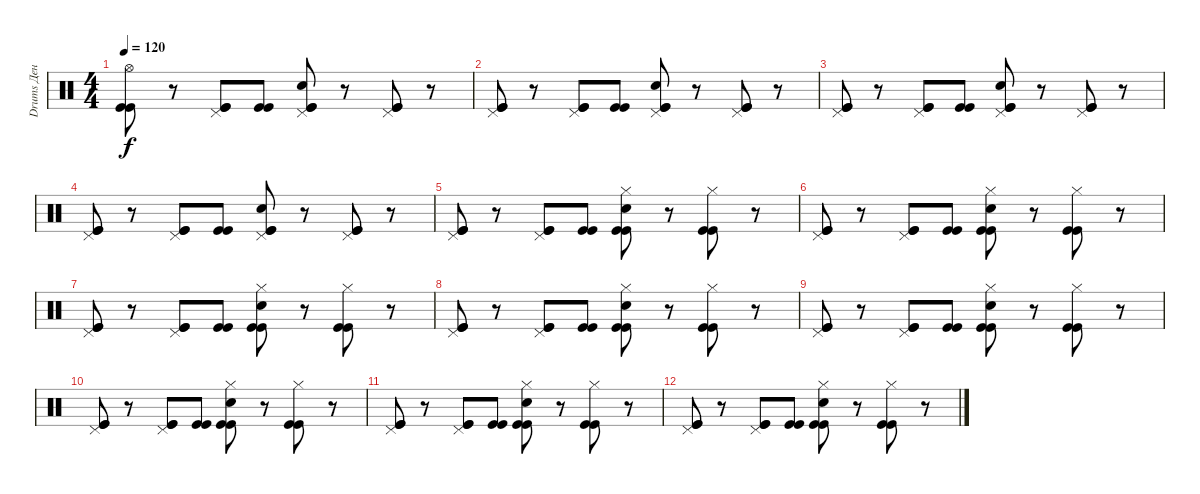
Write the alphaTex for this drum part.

\track ("Drums Ден" "Drums Ден") {instrument percussion}
\staff {score}
\articulation defaults
\ts (4 4)
\tempo 120
\clef neutral
\ks c
("Hi-Hat (open)" "Kick (hit)" "Kick (hit)").8{dy f} r.8 ("Pedal Hi-Hat (hit)" "Kick (hit)" "Kick (hit)").8 ("Kick (hit)" "Kick (hit)").8 ("Pedal Hi-Hat (hit)" "Kick (hit)" "Kick (hit)" "Electric Snare (hit)").8 r.8 ("Pedal Hi-Hat (hit)" "Kick (hit)" "Kick (hit)").8 r.8 |
("Pedal Hi-Hat (hit)" "Kick (hit)" "Kick (hit)").8 r.8 ("Pedal Hi-Hat (hit)" "Kick (hit)" "Kick (hit)").8 ("Kick (hit)" "Kick (hit)").8 ("Pedal Hi-Hat (hit)" "Kick (hit)" "Kick (hit)" "Electric Snare (hit)").8 r.8 ("Pedal Hi-Hat (hit)" "Kick (hit)" "Kick (hit)").8 r.8 |
("Pedal Hi-Hat (hit)" "Kick (hit)" "Kick (hit)").8 r.8 ("Pedal Hi-Hat (hit)" "Kick (hit)" "Kick (hit)").8 ("Kick (hit)" "Kick (hit)").8 ("Pedal Hi-Hat (hit)" "Kick (hit)" "Kick (hit)" "Electric Snare (hit)").8 r.8 ("Pedal Hi-Hat (hit)" "Kick (hit)" "Kick (hit)").8 r.8 |
("Pedal Hi-Hat (hit)" "Kick (hit)" "Kick (hit)").8 r.8 ("Pedal Hi-Hat (hit)" "Kick (hit)" "Kick (hit)").8 ("Kick (hit)" "Kick (hit)").8 ("Pedal Hi-Hat (hit)" "Kick (hit)" "Kick (hit)" "Electric Snare (hit)").8 r.8 ("Pedal Hi-Hat (hit)" "Kick (hit)" "Kick (hit)").8 r.8 |
("Pedal Hi-Hat (hit)" "Kick (hit)" "Kick (hit)").8 r.8 ("Pedal Hi-Hat (hit)" "Kick (hit)" "Kick (hit)").8 ("Kick (hit)" "Kick (hit)").8 ("Hi-Hat (closed)" "Kick (hit)" "Kick (hit)" "Electric Snare (hit)").8 r.8 ("Hi-Hat (closed)" "Kick (hit)" "Kick (hit)").8 r.8 |
("Pedal Hi-Hat (hit)" "Kick (hit)" "Kick (hit)").8 r.8 ("Pedal Hi-Hat (hit)" "Kick (hit)" "Kick (hit)").8 ("Kick (hit)" "Kick (hit)").8 ("Hi-Hat (closed)" "Kick (hit)" "Kick (hit)" "Electric Snare (hit)").8 r.8 ("Hi-Hat (closed)" "Kick (hit)" "Kick (hit)").8 r.8 |
("Pedal Hi-Hat (hit)" "Kick (hit)" "Kick (hit)").8 r.8 ("Pedal Hi-Hat (hit)" "Kick (hit)" "Kick (hit)").8 ("Kick (hit)" "Kick (hit)").8 ("Hi-Hat (closed)" "Kick (hit)" "Kick (hit)" "Electric Snare (hit)").8 r.8 ("Hi-Hat (closed)" "Kick (hit)" "Kick (hit)").8 r.8 |
("Pedal Hi-Hat (hit)" "Kick (hit)" "Kick (hit)").8 r.8 ("Pedal Hi-Hat (hit)" "Kick (hit)" "Kick (hit)").8 ("Kick (hit)" "Kick (hit)").8 ("Hi-Hat (closed)" "Kick (hit)" "Kick (hit)" "Electric Snare (hit)").8 r.8 ("Hi-Hat (closed)" "Kick (hit)" "Kick (hit)").8 r.8 |
("Pedal Hi-Hat (hit)" "Kick (hit)" "Kick (hit)").8 r.8 ("Pedal Hi-Hat (hit)" "Kick (hit)" "Kick (hit)").8 ("Kick (hit)" "Kick (hit)").8 ("Hi-Hat (closed)" "Kick (hit)" "Kick (hit)" "Electric Snare (hit)").8 r.8 ("Hi-Hat (closed)" "Kick (hit)" "Kick (hit)").8 r.8 |
("Pedal Hi-Hat (hit)" "Kick (hit)" "Kick (hit)").8 r.8 ("Pedal Hi-Hat (hit)" "Kick (hit)" "Kick (hit)").8 ("Kick (hit)" "Kick (hit)").8 ("Hi-Hat (closed)" "Kick (hit)" "Kick (hit)" "Electric Snare (hit)").8 r.8 ("Hi-Hat (closed)" "Kick (hit)" "Kick (hit)").8 r.8 |
("Pedal Hi-Hat (hit)" "Kick (hit)" "Kick (hit)").8 r.8 ("Pedal Hi-Hat (hit)" "Kick (hit)" "Kick (hit)").8 ("Kick (hit)" "Kick (hit)").8 ("Hi-Hat (closed)" "Kick (hit)" "Kick (hit)" "Electric Snare (hit)").8 r.8 ("Hi-Hat (closed)" "Kick (hit)" "Kick (hit)").8 r.8 |
("Pedal Hi-Hat (hit)" "Kick (hit)" "Kick (hit)").8 r.8 ("Pedal Hi-Hat (hit)" "Kick (hit)" "Kick (hit)").8 ("Kick (hit)" "Kick (hit)").8 ("Hi-Hat (closed)" "Kick (hit)" "Kick (hit)" "Electric Snare (hit)").8 r.8 ("Hi-Hat (closed)" "Kick (hit)" "Kick (hit)").8 r.8
